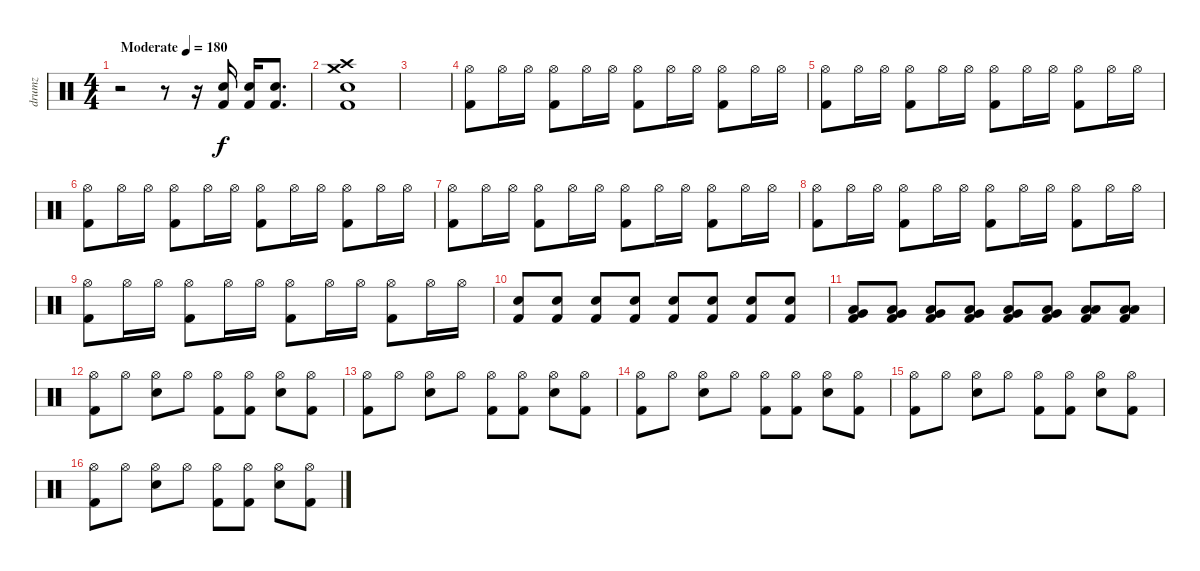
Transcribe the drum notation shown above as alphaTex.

\track ("drumz" "drumz") {instrument percussion}
\staff {score}
\articulation defaults
\ts (4 4)
\tempo (180 "Moderate")
\clef neutral
\ks c
r.2{dy f} r.8 r.16 ("Electric Snare (hit)" "Kick (hit) 2").16 ("Electric Snare (hit)" "Kick (hit) 2").16 ("Electric Snare (hit)" "Kick (hit) 2").8{d} |
("Crash medium (hit)" "Crash high (hit)" "Electric Snare (hit)" "Kick (hit) 2").1 |
|
("Hi-Hat (open)" "Kick (hit) 2").8 "Hi-Hat (open)".16 "Hi-Hat (open)".16 ("Hi-Hat (open)" "Kick (hit) 2").8 "Hi-Hat (open)".16 "Hi-Hat (open)".16 ("Hi-Hat (open)" "Kick (hit) 2").8 "Hi-Hat (open)".16 "Hi-Hat (open)".16 ("Hi-Hat (open)" "Kick (hit) 2").8 "Hi-Hat (open)".16 "Hi-Hat (open)".16 |
("Hi-Hat (open)" "Kick (hit) 2").8 "Hi-Hat (open)".16 "Hi-Hat (open)".16 ("Hi-Hat (open)" "Kick (hit) 2").8 "Hi-Hat (open)".16 "Hi-Hat (open)".16 ("Hi-Hat (open)" "Kick (hit) 2").8 "Hi-Hat (open)".16 "Hi-Hat (open)".16 ("Hi-Hat (open)" "Kick (hit) 2").8 "Hi-Hat (open)".16 "Hi-Hat (open)".16 |
("Hi-Hat (open)" "Kick (hit) 2").8 "Hi-Hat (open)".16 "Hi-Hat (open)".16 ("Hi-Hat (open)" "Kick (hit) 2").8 "Hi-Hat (open)".16 "Hi-Hat (open)".16 ("Hi-Hat (open)" "Kick (hit) 2").8 "Hi-Hat (open)".16 "Hi-Hat (open)".16 ("Hi-Hat (open)" "Kick (hit) 2").8 "Hi-Hat (open)".16 "Hi-Hat (open)".16 |
("Hi-Hat (open)" "Kick (hit) 2").8 "Hi-Hat (open)".16 "Hi-Hat (open)".16 ("Hi-Hat (open)" "Kick (hit) 2").8 "Hi-Hat (open)".16 "Hi-Hat (open)".16 ("Hi-Hat (open)" "Kick (hit) 2").8 "Hi-Hat (open)".16 "Hi-Hat (open)".16 ("Hi-Hat (open)" "Kick (hit) 2").8 "Hi-Hat (open)".16 "Hi-Hat (open)".16 |
("Hi-Hat (open)" "Kick (hit) 2").8 "Hi-Hat (open)".16 "Hi-Hat (open)".16 ("Hi-Hat (open)" "Kick (hit) 2").8 "Hi-Hat (open)".16 "Hi-Hat (open)".16 ("Hi-Hat (open)" "Kick (hit) 2").8 "Hi-Hat (open)".16 "Hi-Hat (open)".16 ("Hi-Hat (open)" "Kick (hit) 2").8 "Hi-Hat (open)".16 "Hi-Hat (open)".16 |
("Hi-Hat (open)" "Kick (hit) 2").8 "Hi-Hat (open)".16 "Hi-Hat (open)".16 ("Hi-Hat (open)" "Kick (hit) 2").8 "Hi-Hat (open)".16 "Hi-Hat (open)".16 ("Hi-Hat (open)" "Kick (hit) 2").8 "Hi-Hat (open)".16 "Hi-Hat (open)".16 ("Hi-Hat (open)" "Kick (hit) 2").8 "Hi-Hat (open)".16 "Hi-Hat (open)".16 |
("Electric Snare (hit)" "Kick (hit) 2").8 ("Electric Snare (hit)" "Kick (hit) 2").8 ("Electric Snare (hit)" "Kick (hit) 2").8 ("Electric Snare (hit)" "Kick (hit) 2").8 ("Electric Snare (hit)" "Kick (hit) 2").8 ("Electric Snare (hit)" "Kick (hit) 2").8 ("Electric Snare (hit)" "Kick (hit) 2").8 ("Electric Snare (hit)" "Kick (hit) 2").8 |
("Low Tom (hit)" "Very Low Tom (hit)" "Kick (hit) 2").8 ("Low Tom (hit)" "Very Low Tom (hit)" "Kick (hit) 2").8 ("Low Tom (hit)" "Very Low Tom (hit)" "Kick (hit) 2").8 ("Low Tom (hit)" "Very Low Tom (hit)" "Kick (hit) 2").8 ("Very Low Tom (hit)" "Low Floor Tom (hit)" "Kick (hit) 2").8 ("Very Low Tom (hit)" "Low Floor Tom (hit)" "Kick (hit) 2").8 ("Low Floor Tom (hit)" "Low Floor Tom (hit)" "Kick (hit) 2").8 ("Low Floor Tom (hit)" "Low Floor Tom (hit)" "Kick (hit) 2").8 |
("Hi-Hat (open)" "Kick (hit) 2").8 "Hi-Hat (open)".8 ("Hi-Hat (open)" "Electric Snare (hit)").8 "Hi-Hat (open)".8 ("Hi-Hat (open)" "Kick (hit) 2").8 ("Hi-Hat (open)" "Kick (hit) 2").8 ("Hi-Hat (open)" "Electric Snare (hit)").8 ("Hi-Hat (open)" "Kick (hit) 2").8 |
("Hi-Hat (open)" "Kick (hit) 2").8 "Hi-Hat (open)".8 ("Hi-Hat (open)" "Electric Snare (hit)").8 "Hi-Hat (open)".8 ("Hi-Hat (open)" "Kick (hit) 2").8 ("Hi-Hat (open)" "Kick (hit) 2").8 ("Hi-Hat (open)" "Electric Snare (hit)").8 ("Hi-Hat (open)" "Kick (hit) 2").8 |
("Hi-Hat (open)" "Kick (hit) 2").8 "Hi-Hat (open)".8 ("Hi-Hat (open)" "Electric Snare (hit)").8 "Hi-Hat (open)".8 ("Hi-Hat (open)" "Kick (hit) 2").8 ("Hi-Hat (open)" "Kick (hit) 2").8 ("Hi-Hat (open)" "Electric Snare (hit)").8 ("Hi-Hat (open)" "Kick (hit) 2").8 |
("Hi-Hat (open)" "Kick (hit) 2").8 "Hi-Hat (open)".8 ("Hi-Hat (open)" "Electric Snare (hit)").8 "Hi-Hat (open)".8 ("Hi-Hat (open)" "Kick (hit) 2").8 ("Hi-Hat (open)" "Kick (hit) 2").8 ("Hi-Hat (open)" "Electric Snare (hit)").8 ("Hi-Hat (open)" "Kick (hit) 2").8 |
("Hi-Hat (open)" "Kick (hit) 2").8 "Hi-Hat (open)".8 ("Hi-Hat (open)" "Electric Snare (hit)").8 "Hi-Hat (open)".8 ("Hi-Hat (open)" "Kick (hit) 2").8 ("Hi-Hat (open)" "Kick (hit) 2").8 ("Hi-Hat (open)" "Electric Snare (hit)").8 ("Hi-Hat (open)" "Kick (hit) 2").8
